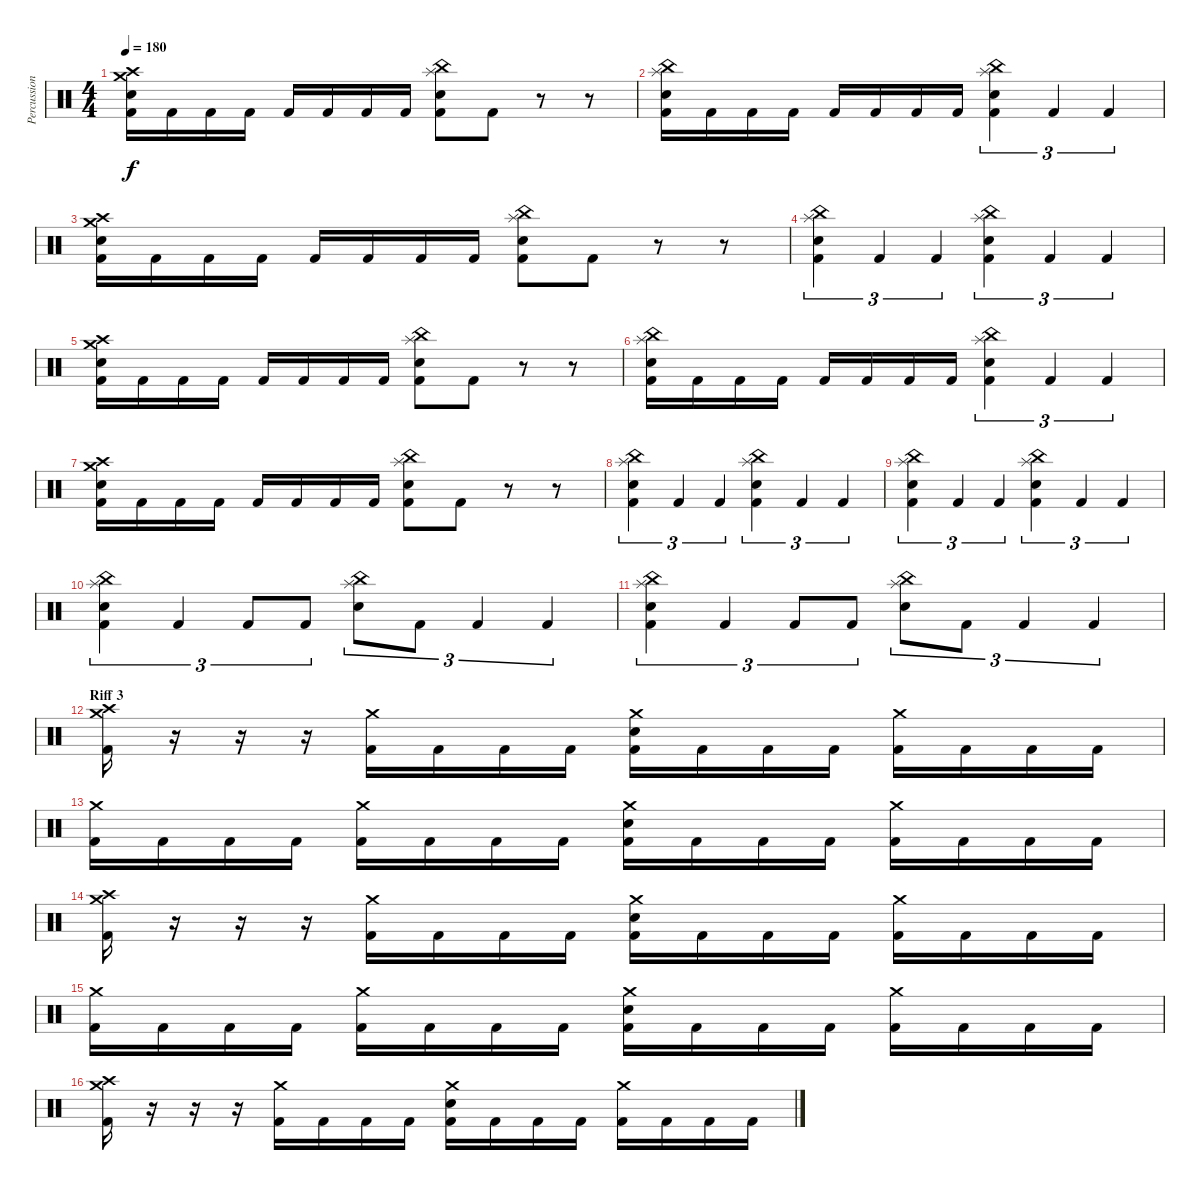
\track ("Percussion" "Percussion") {instrument percussion}
\staff {score}
\articulation defaults
\ts (4 4)
\tempo 180
\clef neutral
\ks c
("Crash medium (hit)" "Crash high (hit)" "Electric Snare (hit)" "Kick (hit) 2").16{dy f} "Kick (hit) 2".16 "Kick (hit) 2".16 "Kick (hit) 2".16 "Kick (hit) 2".16 "Kick (hit) 2".16 "Kick (hit) 2".16 "Kick (hit) 2".16 ("Splash (hit)" "China (hit)" "Electric Snare (hit)" "Kick (hit) 2").8 "Kick (hit) 2".8 r.8 r.8 |
("Splash (hit)" "China (hit)" "Electric Snare (hit)" "Kick (hit) 2").16 "Kick (hit) 2".16 "Kick (hit) 2".16 "Kick (hit) 2".16 "Kick (hit) 2".16 "Kick (hit) 2".16 "Kick (hit) 2".16 "Kick (hit) 2".16 ("Splash (hit)" "China (hit)" "Electric Snare (hit)" "Kick (hit) 2").4{tu (3 2)} "Kick (hit) 2".4{tu (3 2)} "Kick (hit) 2".4{tu (3 2)} |
("Crash medium (hit)" "Crash high (hit)" "Electric Snare (hit)" "Kick (hit) 2").16 "Kick (hit) 2".16 "Kick (hit) 2".16 "Kick (hit) 2".16 "Kick (hit) 2".16 "Kick (hit) 2".16 "Kick (hit) 2".16 "Kick (hit) 2".16 ("Splash (hit)" "China (hit)" "Electric Snare (hit)" "Kick (hit) 2").8 "Kick (hit) 2".8 r.8 r.8 |
("Splash (hit)" "China (hit)" "Electric Snare (hit)" "Kick (hit) 2").4{tu (3 2)} "Kick (hit) 2".4{tu (3 2)} "Kick (hit) 2".4{tu (3 2)} ("Splash (hit)" "China (hit)" "Electric Snare (hit)" "Kick (hit) 2").4{tu (3 2)} "Kick (hit) 2".4{tu (3 2)} "Kick (hit) 2".4{tu (3 2)} |
("Crash medium (hit)" "Crash high (hit)" "Electric Snare (hit)" "Kick (hit) 2").16 "Kick (hit) 2".16 "Kick (hit) 2".16 "Kick (hit) 2".16 "Kick (hit) 2".16 "Kick (hit) 2".16 "Kick (hit) 2".16 "Kick (hit) 2".16 ("Splash (hit)" "China (hit)" "Electric Snare (hit)" "Kick (hit) 2").8 "Kick (hit) 2".8 r.8 r.8 |
("Splash (hit)" "China (hit)" "Electric Snare (hit)" "Kick (hit) 2").16 "Kick (hit) 2".16 "Kick (hit) 2".16 "Kick (hit) 2".16 "Kick (hit) 2".16 "Kick (hit) 2".16 "Kick (hit) 2".16 "Kick (hit) 2".16 ("Splash (hit)" "China (hit)" "Electric Snare (hit)" "Kick (hit) 2").4{tu (3 2)} "Kick (hit) 2".4{tu (3 2)} "Kick (hit) 2".4{tu (3 2)} |
("Crash medium (hit)" "Crash high (hit)" "Electric Snare (hit)" "Kick (hit) 2").16 "Kick (hit) 2".16 "Kick (hit) 2".16 "Kick (hit) 2".16 "Kick (hit) 2".16 "Kick (hit) 2".16 "Kick (hit) 2".16 "Kick (hit) 2".16 ("Splash (hit)" "China (hit)" "Electric Snare (hit)" "Kick (hit) 2").8 "Kick (hit) 2".8 r.8 r.8 |
("Splash (hit)" "China (hit)" "Electric Snare (hit)" "Kick (hit) 2").4{tu (3 2)} "Kick (hit) 2".4{tu (3 2)} "Kick (hit) 2".4{tu (3 2)} ("Splash (hit)" "China (hit)" "Electric Snare (hit)" "Kick (hit) 2").4{tu (3 2)} "Kick (hit) 2".4{tu (3 2)} "Kick (hit) 2".4{tu (3 2)} |
("Splash (hit)" "China (hit)" "Electric Snare (hit)" "Kick (hit) 2").4{tu (3 2)} "Kick (hit) 2".4{tu (3 2)} "Kick (hit) 2".4{tu (3 2)} ("Splash (hit)" "China (hit)" "Electric Snare (hit)" "Kick (hit) 2").4{tu (3 2)} "Kick (hit) 2".4{tu (3 2)} "Kick (hit) 2".4{tu (3 2)} |
("Splash (hit)" "China (hit)" "Electric Snare (hit)" "Kick (hit) 2").4{tu (3 2)} "Kick (hit) 2".4{tu (3 2)} "Kick (hit) 2".8{tu (3 2)} "Kick (hit) 2".8{tu (3 2)} ("Splash (hit)" "China (hit)" "Electric Snare (hit)").8{tu (3 2)} "Kick (hit) 2".8{tu (3 2)} "Kick (hit) 2".4{tu (3 2)} "Kick (hit) 2".4{tu (3 2)} |
("Splash (hit)" "China (hit)" "Electric Snare (hit)" "Kick (hit) 2").4{tu (3 2)} "Kick (hit) 2".4{tu (3 2)} "Kick (hit) 2".8{tu (3 2)} "Kick (hit) 2".8{tu (3 2)} ("Splash (hit)" "China (hit)" "Electric Snare (hit)").8{tu (3 2)} "Kick (hit) 2".8{tu (3 2)} "Kick (hit) 2".4{tu (3 2)} "Kick (hit) 2".4{tu (3 2)} |
\section ("" "Riff 3")
("Crash medium (hit)" "Crash high (hit)" "Kick (hit) 2").16 r.16 r.16 r.16 ("Crash medium (hit)" "Kick (hit) 2").16 "Kick (hit) 2".16 "Kick (hit) 2".16 "Kick (hit) 2".16 ("Crash medium (hit)" "Electric Snare (hit)" "Kick (hit) 2").16 "Kick (hit) 2".16 "Kick (hit) 2".16 "Kick (hit) 2".16 ("Crash medium (hit)" "Kick (hit) 2").16 "Kick (hit) 2".16 "Kick (hit) 2".16 "Kick (hit) 2".16 |
("Crash medium (hit)" "Kick (hit) 2").16 "Kick (hit) 2".16 "Kick (hit) 2".16 "Kick (hit) 2".16 ("Crash medium (hit)" "Kick (hit) 2").16 "Kick (hit) 2".16 "Kick (hit) 2".16 "Kick (hit) 2".16 ("Crash medium (hit)" "Electric Snare (hit)" "Kick (hit) 2").16 "Kick (hit) 2".16 "Kick (hit) 2".16 "Kick (hit) 2".16 ("Crash medium (hit)" "Kick (hit) 2").16 "Kick (hit) 2".16 "Kick (hit) 2".16 "Kick (hit) 2".16 |
("Crash medium (hit)" "Crash high (hit)" "Kick (hit) 2").16 r.16 r.16 r.16 ("Crash medium (hit)" "Kick (hit) 2").16 "Kick (hit) 2".16 "Kick (hit) 2".16 "Kick (hit) 2".16 ("Crash medium (hit)" "Electric Snare (hit)" "Kick (hit) 2").16 "Kick (hit) 2".16 "Kick (hit) 2".16 "Kick (hit) 2".16 ("Crash medium (hit)" "Kick (hit) 2").16 "Kick (hit) 2".16 "Kick (hit) 2".16 "Kick (hit) 2".16 |
("Crash medium (hit)" "Kick (hit) 2").16 "Kick (hit) 2".16 "Kick (hit) 2".16 "Kick (hit) 2".16 ("Crash medium (hit)" "Kick (hit) 2").16 "Kick (hit) 2".16 "Kick (hit) 2".16 "Kick (hit) 2".16 ("Crash medium (hit)" "Electric Snare (hit)" "Kick (hit) 2").16 "Kick (hit) 2".16 "Kick (hit) 2".16 "Kick (hit) 2".16 ("Crash medium (hit)" "Kick (hit) 2").16 "Kick (hit) 2".16 "Kick (hit) 2".16 "Kick (hit) 2".16 |
("Crash medium (hit)" "Crash high (hit)" "Kick (hit) 2").16 r.16 r.16 r.16 ("Crash medium (hit)" "Kick (hit) 2").16 "Kick (hit) 2".16 "Kick (hit) 2".16 "Kick (hit) 2".16 ("Crash medium (hit)" "Electric Snare (hit)" "Kick (hit) 2").16 "Kick (hit) 2".16 "Kick (hit) 2".16 "Kick (hit) 2".16 ("Crash medium (hit)" "Kick (hit) 2").16 "Kick (hit) 2".16 "Kick (hit) 2".16 "Kick (hit) 2".16
